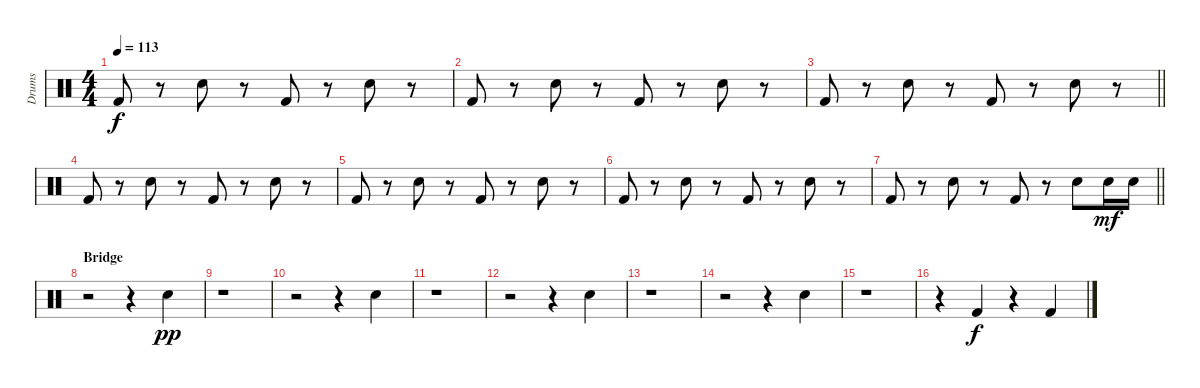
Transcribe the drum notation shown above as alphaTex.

\track ("Drums" "Drums") {instrument percussion}
\staff {score}
\articulation defaults
\ts (4 4)
\tempo 113
\clef neutral
\ks c "Kick (hit) 2".8{dy f}
r.8 "Electric Snare (hit)".8 r.8 "Kick (hit) 2".8 r.8 "Electric Snare (hit)".8 r.8 |
"Kick (hit) 2".8 r.8 "Electric Snare (hit)".8 r.8 "Kick (hit) 2".8 r.8 "Electric Snare (hit)".8 r.8 |
\barLineRight lightlight "Kick (hit) 2".8
r.8 "Electric Snare (hit)".8 r.8 "Kick (hit) 2".8 r.8 "Electric Snare (hit)".8 r.8 |
"Kick (hit) 2".8 r.8 "Electric Snare (hit)".8 r.8 "Kick (hit) 2".8 r.8 "Electric Snare (hit)".8 r.8 |
"Kick (hit) 2".8 r.8 "Electric Snare (hit)".8 r.8 "Kick (hit) 2".8 r.8 "Electric Snare (hit)".8 r.8 |
"Kick (hit) 2".8 r.8 "Electric Snare (hit)".8 r.8 "Kick (hit) 2".8 r.8 "Electric Snare (hit)".8 r.8 |
\barLineRight lightlight "Kick (hit) 2".8
r.8 "Electric Snare (hit)".8 r.8 "Kick (hit) 2".8 r.8 "Electric Snare (hit)".8 "Electric Snare (hit)".16{dy mf} "Electric Snare (hit)".16 |
\section ("" "Bridge")
r.2 r.4 "Hand Clap (hit)".4{dy pp} |
r.1 |
r.2 r.4 "Hand Clap (hit)".4 |
r.1 |
r.2 r.4 "Hand Clap (hit)".4 |
r.1 |
r.2 r.4 "Hand Clap (hit)".4 |
r.1 |
r.4 "Kick (hit) 2".4{dy f} r.4 "Kick (hit) 2".4
